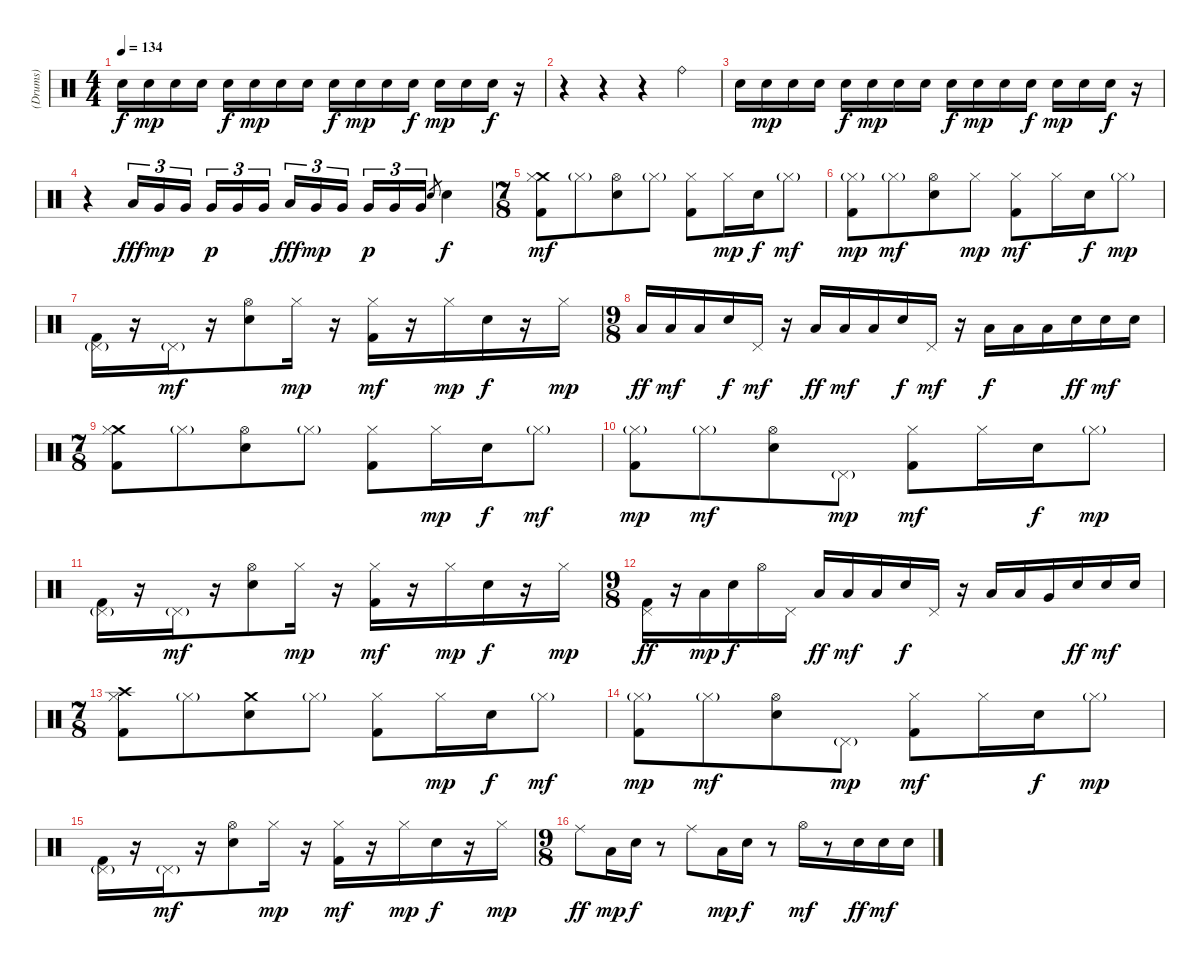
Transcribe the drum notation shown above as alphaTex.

\track ("(Drums)" "(Drums)") {instrument percussion}
\staff {score}
\articulation defaults
\ts (4 4)
\tempo 134
\clef neutral
\ks c "Electric Snare (hit)".16{dy f} "Electric Snare (hit)".16{dy mp} "Electric Snare (hit)".16 "Electric Snare (hit)".16 "Electric Snare (hit)".16{dy f} "Electric Snare (hit)".16{dy mp} "Electric Snare (hit)".16 "Electric Snare (hit)".16 "Electric Snare (hit)".16{dy f} "Electric Snare (hit)".16{dy mp} "Electric Snare (hit)".16 "Electric Snare (hit)".16{dy f} "Electric Snare (hit)".16{dy mp} "Electric Snare (hit)".16 "Electric Snare (hit)".16{dy f}
r.16 |
r.4 r.4 r.4 "Ride (bell)".4 |
"Electric Snare (hit)".16 "Electric Snare (hit)".16{dy mp} "Electric Snare (hit)".16 "Electric Snare (hit)".16 "Electric Snare (hit)".16{dy f} "Electric Snare (hit)".16{dy mp} "Electric Snare (hit)".16 "Electric Snare (hit)".16 "Electric Snare (hit)".16{dy f} "Electric Snare (hit)".16{dy mp} "Electric Snare (hit)".16 "Electric Snare (hit)".16{dy f} "Electric Snare (hit)".16{dy mp} "Electric Snare (hit)".16 "Electric Snare (hit)".16{dy f} r.16 |
r.4 "Low Tom (hit)".16{tu (3 2) dy fff} "Very Low Tom (hit)".16{tu (3 2) dy mp} "Very Low Tom (hit)".16{tu (3 2)} "Very Low Tom (hit)".16{tu (3 2) dy p} "Very Low Tom (hit)".16{tu (3 2)} "Very Low Tom (hit)".16{tu (3 2)} "Low Tom (hit)".16{tu (3 2) dy fff} "Very Low Tom (hit)".16{tu (3 2) dy mp} "Very Low Tom (hit)".16{tu (3 2)} "Very Low Tom (hit)".16{tu (3 2) dy p} "Very Low Tom (hit)".16{tu (3 2)} "Very Low Tom (hit)".16{tu (3 2)} "Electric Snare (hit)".8{gr} "Electric Snare (hit)".4{dy f} |
\ts (7 8)
("Crash medium (hit)" "Hi-Hat (closed)" "Kick (hit) 2").8{dy mf} "Hi-Hat (closed)"{g}.8 ("Hi-Hat (open)" "Electric Snare (hit)").8 "Hi-Hat (closed)"{g}.8 ("Hi-Hat (closed)" "Kick (hit) 2").8 "Hi-Hat (closed)".16{dy mp} "Electric Snare (hit)".16{dy f} "Hi-Hat (closed)"{g}.8{dy mf} |
("Hi-Hat (closed)"{g} "Kick (hit) 2").8{dy mp} "Hi-Hat (closed)"{g}.8{dy mf} ("Hi-Hat (open)" "Electric Snare (hit)").8 "Hi-Hat (closed)".8{dy mp} ("Hi-Hat (closed)" "Kick (hit) 2").8{dy mf} "Hi-Hat (closed)".16 "Electric Snare (hit)".16{dy f} "Hi-Hat (closed)"{g}.8{dy mp} |
("Pedal Hi-Hat (hit)"{g} "Kick (hit) 2").16 r.16 "Pedal Hi-Hat (hit)"{g}.16{dy mf} r.16 ("Hi-Hat (open)" "Electric Snare (hit)").8 "Hi-Hat (closed)".16{dy mp} r.16 ("Hi-Hat (closed)" "Kick (hit) 2").16{dy mf} r.16 "Hi-Hat (closed)".16{dy mp} "Electric Snare (hit)".16{dy f} r.16 "Hi-Hat (closed)".16{dy mp} |
\ts (9 8)
"Low Tom (hit)".16{dy ff} "Low Tom (hit)".16{dy mf} "Low Tom (hit)".16 "Electric Snare (hit)".16{dy f} "Pedal Hi-Hat (hit)".16{dy mf} r.16 "Low Tom (hit)".16{dy ff} "Low Tom (hit)".16{dy mf} "Low Tom (hit)".16 "Electric Snare (hit)".16{dy f} "Pedal Hi-Hat (hit)".16{dy mf} r.16 "Low Tom (hit)".16{dy f} "Low Tom (hit)".16 "Low Tom (hit)".16 "Electric Snare (hit)".16{dy ff} "Electric Snare (hit)".16{dy mf} "Electric Snare (hit)".16 |
\ts (7 8)
("Crash medium (hit)" "Hi-Hat (closed)" "Kick (hit) 2").8 "Hi-Hat (closed)"{g}.8 ("Hi-Hat (open)" "Electric Snare (hit)").8 "Hi-Hat (closed)"{g}.8 ("Hi-Hat (closed)" "Kick (hit) 2").8 "Hi-Hat (closed)".16{dy mp} "Electric Snare (hit)".16{dy f} "Hi-Hat (closed)"{g}.8{dy mf} |
("Hi-Hat (closed)"{g} "Kick (hit) 2").8{dy mp} "Hi-Hat (closed)"{g}.8{dy mf} ("Hi-Hat (open)" "Electric Snare (hit)").8 "Pedal Hi-Hat (hit)"{g}.8{dy mp} ("Hi-Hat (closed)" "Kick (hit) 2").8{dy mf} "Hi-Hat (closed)".16 "Electric Snare (hit)".16{dy f} "Hi-Hat (closed)"{g}.8{dy mp} |
("Pedal Hi-Hat (hit)"{g} "Kick (hit) 2").16 r.16 "Pedal Hi-Hat (hit)"{g}.16{dy mf} r.16 ("Hi-Hat (open)" "Electric Snare (hit)").8 "Hi-Hat (closed)".16{dy mp} r.16 ("Hi-Hat (closed)" "Kick (hit) 2").16{dy mf} r.16 "Hi-Hat (closed)".16{dy mp} "Electric Snare (hit)".16{dy f} r.16 "Hi-Hat (closed)".16{dy mp} |
\ts (9 8)
("Pedal Hi-Hat (hit)" "Kick (hit) 2").16{dy ff} r.16 "Low Tom (hit)".16{dy mp} "Electric Snare (hit)".16{dy f} "Hi-Hat (open)".16 "Pedal Hi-Hat (hit)".16 "Low Tom (hit)".16{dy ff} "Low Tom (hit)".16{dy mf} "Low Tom (hit)".16 "Electric Snare (hit)".16{dy f} "Pedal Hi-Hat (hit)".16 r.16 "Low Tom (hit)".16 "Low Tom (hit)".16 "Very Low Tom (hit)".16 "Electric Snare (hit)".16{dy ff} "Electric Snare (hit)".16{dy mf} "Electric Snare (hit)".16 |
\ts (7 8)
("Crash high (hit)" "Hi-Hat (closed)" "Kick (hit) 2").8 "Hi-Hat (closed)"{g}.8 ("Crash medium (hit)" "Electric Snare (hit)").8 "Hi-Hat (closed)"{g}.8 ("Hi-Hat (closed)" "Kick (hit) 2").8 "Hi-Hat (closed)".16{dy mp} "Electric Snare (hit)".16{dy f} "Hi-Hat (closed)"{g}.8{dy mf} |
("Hi-Hat (closed)"{g} "Kick (hit) 2").8{dy mp} "Hi-Hat (closed)"{g}.8{dy mf} ("Hi-Hat (open)" "Electric Snare (hit)").8 "Pedal Hi-Hat (hit)"{g}.8{dy mp} ("Hi-Hat (closed)" "Kick (hit) 2").8{dy mf} "Hi-Hat (closed)".16 "Electric Snare (hit)".16{dy f} "Hi-Hat (closed)"{g}.8{dy mp} |
("Pedal Hi-Hat (hit)"{g} "Kick (hit) 2").16 r.16 "Pedal Hi-Hat (hit)"{g}.16{dy mf} r.16 ("Hi-Hat (open)" "Electric Snare (hit)").8 "Hi-Hat (closed)".16{dy mp} r.16 ("Hi-Hat (closed)" "Kick (hit) 2").16{dy mf} r.16 "Hi-Hat (closed)".16{dy mp} "Electric Snare (hit)".16{dy f} r.16 "Hi-Hat (closed)".16{dy mp} |
\ts (9 8)
"Ride (middle)".8{dy ff} "Low Tom (hit)".16{dy mp} "Electric Snare (hit)".16{dy f} r.8 "Ride (middle)".8 "Low Tom (hit)".16{dy mp} "Electric Snare (hit)".16{dy f} r.8 "Hi-Hat (open)".16{dy mf} r.8 "Electric Snare (hit)".16{dy ff} "Electric Snare (hit)".16{dy mf} "Electric Snare (hit)".16
